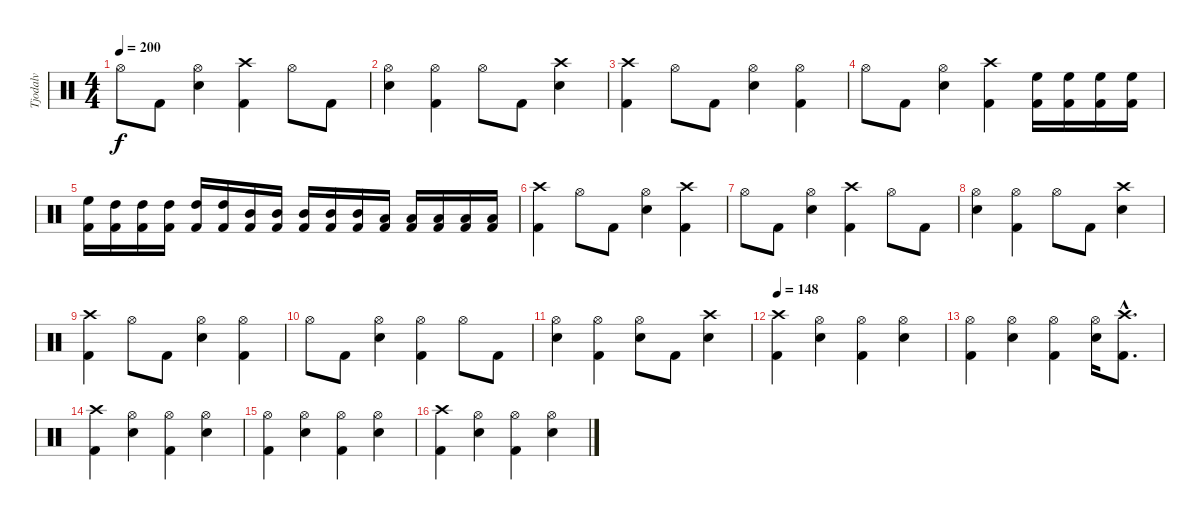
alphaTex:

\track ("Tjodalv" "Tjodalv") {instrument percussion}
\staff {score}
\articulation defaults
\ts (4 4)
\tempo 200
\clef neutral
\ks c "Hi-Hat (open)".8{dy f} "Kick (hit) 2".8
("Snare (hit) 2" "Hi-Hat (open)").4 ("Kick (hit) 2" "Crash high (hit)").4 "Hi-Hat (open)".8 "Kick (hit) 2".8 |
("Snare (hit) 2" "Hi-Hat (open)").4 ("Kick (hit) 2" "Hi-Hat (open)").4 "Hi-Hat (open)".8 "Kick (hit) 2".8 ("Snare (hit) 2" "Crash high (hit)").4 |
("Kick (hit) 2" "Crash high (hit)").4 "Hi-Hat (open)".8 "Kick (hit) 2".8 ("Snare (hit) 2" "Hi-Hat (open)").4 ("Kick (hit) 2" "Hi-Hat (open)").4 |
"Hi-Hat (open)".8 "Kick (hit) 2".8 ("Snare (hit) 2" "Hi-Hat (open)").4 ("Kick (hit) 2" "Crash high (hit)").4 ("Kick (hit) 2" "High Floor Tom (hit)").16 ("Kick (hit) 2" "High Floor Tom (hit)").16 ("Kick (hit) 2" "High Floor Tom (hit)").16 ("Kick (hit) 2" "High Floor Tom (hit)").16 |
("Kick (hit) 2" "High Floor Tom (hit)").16 ("Kick (hit) 2" "High Tom (hit)").16 ("Kick (hit) 2" "High Tom (hit)").16 ("Kick (hit) 2" "High Tom (hit)").16 ("Kick (hit) 2" "High Tom (hit)").16 ("Kick (hit) 2" "High Tom (hit)").16 ("Kick (hit) 2" "Mid Tom (hit)").16 ("Kick (hit) 2" "Mid Tom (hit)").16 ("Kick (hit) 2" "Mid Tom (hit)").16 ("Kick (hit) 2" "Mid Tom (hit)").16 ("Kick (hit) 2" "Mid Tom (hit)").16 ("Kick (hit) 2" "Low Tom (hit)").16 ("Kick (hit) 2" "Low Tom (hit)").16 ("Kick (hit) 2" "Low Tom (hit)").16 ("Kick (hit) 2" "Low Tom (hit)").16 ("Kick (hit) 2" "Low Tom (hit)").16 |
("Kick (hit) 2" "Crash high (hit)").4 "Hi-Hat (open)".8 "Kick (hit) 2".8 ("Snare (hit) 2" "Hi-Hat (open)").4 ("Kick (hit) 2" "Crash high (hit)").4 |
"Hi-Hat (open)".8 "Kick (hit) 2".8 ("Snare (hit) 2" "Hi-Hat (open)").4 ("Kick (hit) 2" "Crash high (hit)").4 "Hi-Hat (open)".8 "Kick (hit) 2".8 |
("Snare (hit) 2" "Hi-Hat (open)").4 ("Kick (hit) 2" "Hi-Hat (open)").4 "Hi-Hat (open)".8 "Kick (hit) 2".8 ("Snare (hit) 2" "Crash high (hit)").4 |
("Kick (hit) 2" "Crash high (hit)").4 "Hi-Hat (open)".8 "Kick (hit) 2".8 ("Snare (hit) 2" "Hi-Hat (open)").4 ("Kick (hit) 2" "Hi-Hat (open)").4 |
"Hi-Hat (open)".8 "Kick (hit) 2".8 ("Snare (hit) 2" "Hi-Hat (open)").4 ("Kick (hit) 2" "Hi-Hat (open)").4 "Hi-Hat (open)".8 "Kick (hit) 2".8 |
("Snare (hit) 2" "Hi-Hat (open)").4 ("Kick (hit) 2" "Hi-Hat (open)").4 ("Snare (hit) 2" "Hi-Hat (open)").8 "Kick (hit) 2".8 ("Snare (hit) 2" "Crash high (hit)").4 |
\tempo 148
("Kick (hit) 2" "Crash high (hit)").4 ("Snare (hit) 2" "Hi-Hat (open)").4 ("Kick (hit) 2" "Hi-Hat (open)").4 ("Snare (hit) 2" "Hi-Hat (open)").4 |
("Kick (hit) 2" "Hi-Hat (open)").4 ("Snare (hit) 2" "Hi-Hat (open)").4 ("Kick (hit) 2" "Hi-Hat (open)").4 ("Snare (hit) 2" "Hi-Hat (open)").16 ("Kick (hit) 2"{hac} "Crash high (hit)"{hac}).8{d} |
("Kick (hit) 2" "Crash high (hit)").4 ("Snare (hit) 2" "Hi-Hat (open)").4 ("Kick (hit) 2" "Hi-Hat (open)").4 ("Snare (hit) 2" "Hi-Hat (open)").4 |
("Kick (hit) 2" "Hi-Hat (open)").4 ("Snare (hit) 2" "Hi-Hat (open)").4 ("Kick (hit) 2" "Hi-Hat (open)").4 ("Snare (hit) 2" "Hi-Hat (open)").4 |
("Kick (hit) 2" "Crash high (hit)").4 ("Snare (hit) 2" "Hi-Hat (open)").4 ("Kick (hit) 2" "Hi-Hat (open)").4 ("Snare (hit) 2" "Hi-Hat (open)").4
